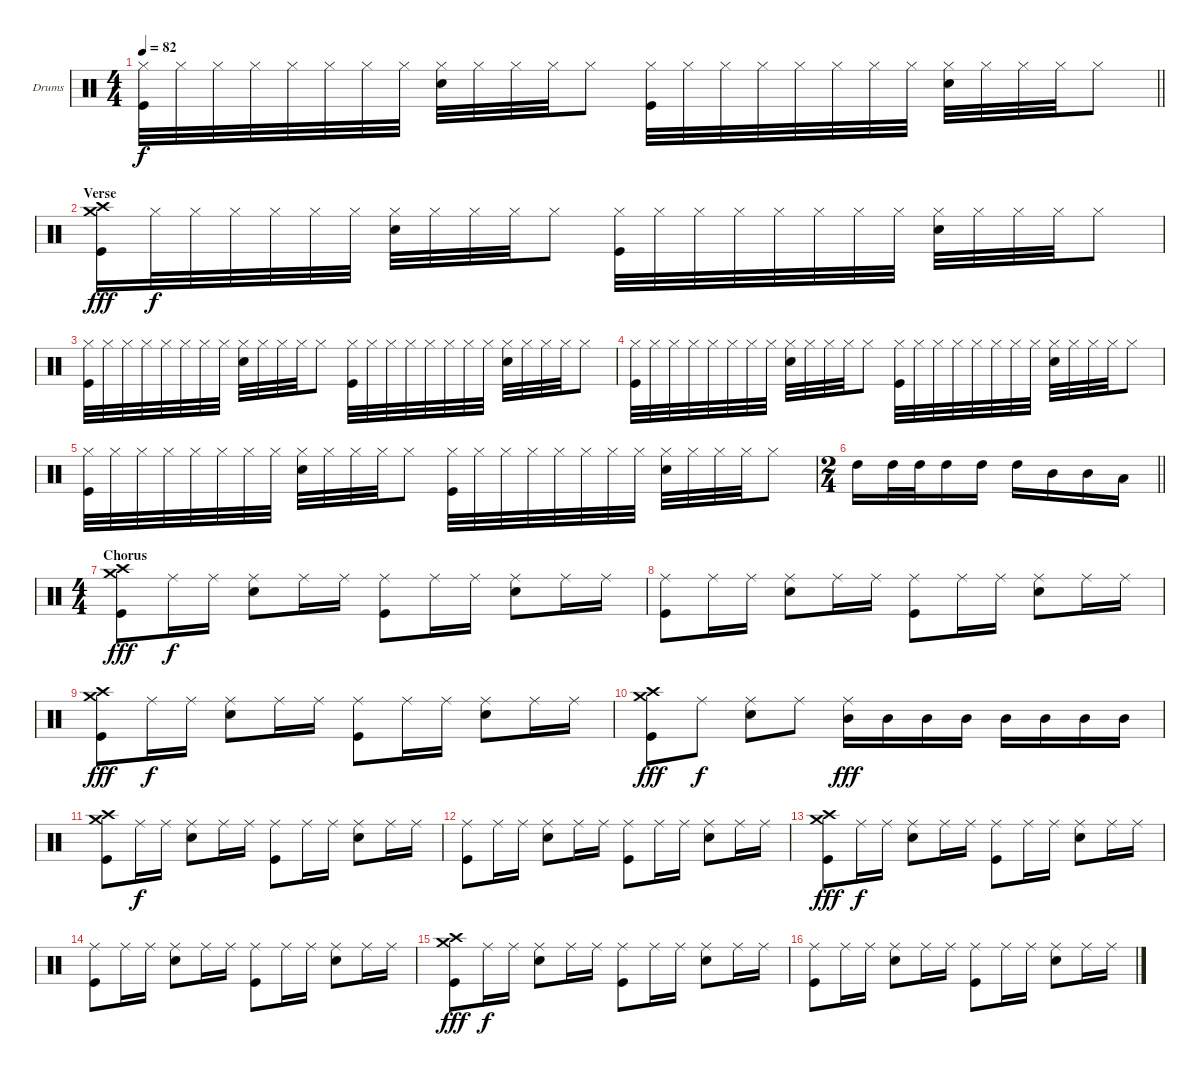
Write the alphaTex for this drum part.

\bracketExtendMode groupsimilarinstruments
\firstSystemTrackNameOrientation horizontal
\otherSystemsTrackNameOrientation horizontal
\track ("Drumkit" "Drums") {instrument percussion}
\staff {score}
\articulation defaults
\ts (4 4)
\tempo 82
\clef neutral
\barLineRight lightlight
\ks c
("Hi-Hat (closed)" "Kick (hit)").32{dy f} "Hi-Hat (closed)".32 "Hi-Hat (closed)".32 "Hi-Hat (closed)".32 "Hi-Hat (closed)".32 "Hi-Hat (closed)".32 "Hi-Hat (closed)".32 "Hi-Hat (closed)".32 ("Hi-Hat (closed)" "Snare (hit) 2").32 "Hi-Hat (closed)".32 "Hi-Hat (closed)".32 "Hi-Hat (closed)".32 "Hi-Hat (closed)".8 ("Hi-Hat (closed)" "Kick (hit)").32 "Hi-Hat (closed)".32 "Hi-Hat (closed)".32 "Hi-Hat (closed)".32 "Hi-Hat (closed)".32 "Hi-Hat (closed)".32 "Hi-Hat (closed)".32 "Hi-Hat (closed)".32 ("Hi-Hat (closed)" "Snare (hit) 2").32 "Hi-Hat (closed)".32 "Hi-Hat (closed)".32 "Hi-Hat (closed)".32 "Hi-Hat (closed)".8 |
\section ("" "Verse")
("Crash medium (hit)" "Crash high (hit)" "Kick (hit)").16{dy fff} "Hi-Hat (closed)".32{dy f} "Hi-Hat (closed)".32 "Hi-Hat (closed)".32 "Hi-Hat (closed)".32 "Hi-Hat (closed)".32 "Hi-Hat (closed)".32 ("Hi-Hat (closed)" "Snare (hit) 2").32 "Hi-Hat (closed)".32 "Hi-Hat (closed)".32 "Hi-Hat (closed)".32 "Hi-Hat (closed)".8 ("Hi-Hat (closed)" "Kick (hit)").32 "Hi-Hat (closed)".32 "Hi-Hat (closed)".32 "Hi-Hat (closed)".32 "Hi-Hat (closed)".32 "Hi-Hat (closed)".32 "Hi-Hat (closed)".32 "Hi-Hat (closed)".32 ("Hi-Hat (closed)" "Snare (hit) 2").32 "Hi-Hat (closed)".32 "Hi-Hat (closed)".32 "Hi-Hat (closed)".32 "Hi-Hat (closed)".8 |
("Hi-Hat (closed)" "Kick (hit)").32 "Hi-Hat (closed)".32 "Hi-Hat (closed)".32 "Hi-Hat (closed)".32 "Hi-Hat (closed)".32 "Hi-Hat (closed)".32 "Hi-Hat (closed)".32 "Hi-Hat (closed)".32 ("Hi-Hat (closed)" "Snare (hit) 2").32 "Hi-Hat (closed)".32 "Hi-Hat (closed)".32 "Hi-Hat (closed)".32 "Hi-Hat (closed)".8 ("Hi-Hat (closed)" "Kick (hit)").32 "Hi-Hat (closed)".32 "Hi-Hat (closed)".32 "Hi-Hat (closed)".32 "Hi-Hat (closed)".32 "Hi-Hat (closed)".32 "Hi-Hat (closed)".32 "Hi-Hat (closed)".32 ("Hi-Hat (closed)" "Snare (hit) 2").32 "Hi-Hat (closed)".32 "Hi-Hat (closed)".32 "Hi-Hat (closed)".32 "Hi-Hat (closed)".8 |
("Hi-Hat (closed)" "Kick (hit)").32 "Hi-Hat (closed)".32 "Hi-Hat (closed)".32 "Hi-Hat (closed)".32 "Hi-Hat (closed)".32 "Hi-Hat (closed)".32 "Hi-Hat (closed)".32 "Hi-Hat (closed)".32 ("Hi-Hat (closed)" "Snare (hit) 2").32 "Hi-Hat (closed)".32 "Hi-Hat (closed)".32 "Hi-Hat (closed)".32 "Hi-Hat (closed)".8 ("Hi-Hat (closed)" "Kick (hit)").32 "Hi-Hat (closed)".32 "Hi-Hat (closed)".32 "Hi-Hat (closed)".32 "Hi-Hat (closed)".32 "Hi-Hat (closed)".32 "Hi-Hat (closed)".32 "Hi-Hat (closed)".32 ("Hi-Hat (closed)" "Snare (hit) 2").32 "Hi-Hat (closed)".32 "Hi-Hat (closed)".32 "Hi-Hat (closed)".32 "Hi-Hat (closed)".8 |
("Hi-Hat (closed)" "Kick (hit)").32 "Hi-Hat (closed)".32 "Hi-Hat (closed)".32 "Hi-Hat (closed)".32 "Hi-Hat (closed)".32 "Hi-Hat (closed)".32 "Hi-Hat (closed)".32 "Hi-Hat (closed)".32 ("Hi-Hat (closed)" "Snare (hit) 2").32 "Hi-Hat (closed)".32 "Hi-Hat (closed)".32 "Hi-Hat (closed)".32 "Hi-Hat (closed)".8 ("Hi-Hat (closed)" "Kick (hit)").32 "Hi-Hat (closed)".32 "Hi-Hat (closed)".32 "Hi-Hat (closed)".32 "Hi-Hat (closed)".32 "Hi-Hat (closed)".32 "Hi-Hat (closed)".32 "Hi-Hat (closed)".32 ("Hi-Hat (closed)" "Snare (hit) 2").32 "Hi-Hat (closed)".32 "Hi-Hat (closed)".32 "Hi-Hat (closed)".32 "Hi-Hat (closed)".8 |
\ts (2 4)
\beaming (8 2 2)
\barLineRight lightlight "High Tom (hit)".16 "High Tom (hit)".32 "High Tom (hit)".32 "High Tom (hit)".16 "High Tom (hit)".16 "High Tom (hit)".16 "Mid Tom (hit)".16 "Mid Tom (hit)".16 "Low Tom (hit)".16
|
\ts (4 4)
\beaming (8 2 2 2 2)
\section ("" "Chorus")
("Kick (hit)" "Crash medium (hit)" "Crash high (hit)").8{dy fff} "Ride (middle)".16{dy f} "Ride (middle)".16 ("Snare (hit) 2" "Ride (middle)").8 "Ride (middle)".16 "Ride (middle)".16 ("Kick (hit)" "Ride (middle)").8 "Ride (middle)".16 "Ride (middle)".16 ("Snare (hit) 2" "Ride (middle)").8 "Ride (middle)".16 "Ride (middle)".16 |
("Kick (hit)" "Ride (middle)").8 "Ride (middle)".16 "Ride (middle)".16 ("Snare (hit) 2" "Ride (middle)").8 "Ride (middle)".16 "Ride (middle)".16 ("Kick (hit)" "Ride (middle)").8 "Ride (middle)".16 "Ride (middle)".16 ("Snare (hit) 2" "Ride (middle)").8 "Ride (middle)".16 "Ride (middle)".16 |
("Kick (hit)" "Crash medium (hit)" "Crash high (hit)").8{dy fff} "Ride (middle)".16{dy f} "Ride (middle)".16 ("Snare (hit) 2" "Ride (middle)").8 "Ride (middle)".16 "Ride (middle)".16 ("Kick (hit)" "Ride (middle)").8 "Ride (middle)".16 "Ride (middle)".16 ("Snare (hit) 2" "Ride (middle)").8 "Ride (middle)".16 "Ride (middle)".16 |
("Kick (hit)" "Crash medium (hit)" "Crash high (hit)").8{dy fff} "Ride (middle)".8{dy f} ("Snare (hit) 2" "Ride (middle)").8 "Ride (middle)".8 ("Mid Tom (hit)" "Ride (middle)").16{dy fff} "Mid Tom (hit)".16 "Mid Tom (hit)".16 "Mid Tom (hit)".16 "Mid Tom (hit)".16 "Mid Tom (hit)".16 "Mid Tom (hit)".16 "Mid Tom (hit)".16 |
("Kick (hit)" "Crash medium (hit)" "Crash high (hit)").8 "Ride (middle)".16{dy f} "Ride (middle)".16 ("Snare (hit) 2" "Ride (middle)").8 "Ride (middle)".16 "Ride (middle)".16 ("Kick (hit)" "Ride (middle)").8 "Ride (middle)".16 "Ride (middle)".16 ("Snare (hit) 2" "Ride (middle)").8 "Ride (middle)".16 "Ride (middle)".16 |
("Kick (hit)" "Ride (middle)").8 "Ride (middle)".16 "Ride (middle)".16 ("Snare (hit) 2" "Ride (middle)").8 "Ride (middle)".16 "Ride (middle)".16 ("Kick (hit)" "Ride (middle)").8 "Ride (middle)".16 "Ride (middle)".16 ("Snare (hit) 2" "Ride (middle)").8 "Ride (middle)".16 "Ride (middle)".16 |
("Kick (hit)" "Crash medium (hit)" "Crash high (hit)").8{dy fff} "Ride (middle)".16{dy f} "Ride (middle)".16 ("Snare (hit) 2" "Ride (middle)").8 "Ride (middle)".16 "Ride (middle)".16 ("Kick (hit)" "Ride (middle)").8 "Ride (middle)".16 "Ride (middle)".16 ("Snare (hit) 2" "Ride (middle)").8 "Ride (middle)".16 "Ride (middle)".16 |
("Kick (hit)" "Ride (middle)").8 "Ride (middle)".16 "Ride (middle)".16 ("Snare (hit) 2" "Ride (middle)").8 "Ride (middle)".16 "Ride (middle)".16 ("Kick (hit)" "Ride (middle)").8 "Ride (middle)".16 "Ride (middle)".16 ("Snare (hit) 2" "Ride (middle)").8 "Ride (middle)".16 "Ride (middle)".16 |
("Kick (hit)" "Crash medium (hit)" "Crash high (hit)").8{dy fff} "Ride (middle)".16{dy f} "Ride (middle)".16 ("Snare (hit) 2" "Ride (middle)").8 "Ride (middle)".16 "Ride (middle)".16 ("Kick (hit)" "Ride (middle)").8 "Ride (middle)".16 "Ride (middle)".16 ("Snare (hit) 2" "Ride (middle)").8 "Ride (middle)".16 "Ride (middle)".16 |
("Kick (hit)" "Ride (middle)").8 "Ride (middle)".16 "Ride (middle)".16 ("Snare (hit) 2" "Ride (middle)").8 "Ride (middle)".16 "Ride (middle)".16 ("Kick (hit)" "Ride (middle)").8 "Ride (middle)".16 "Ride (middle)".16 ("Snare (hit) 2" "Ride (middle)").8 "Ride (middle)".16 "Ride (middle)".16
